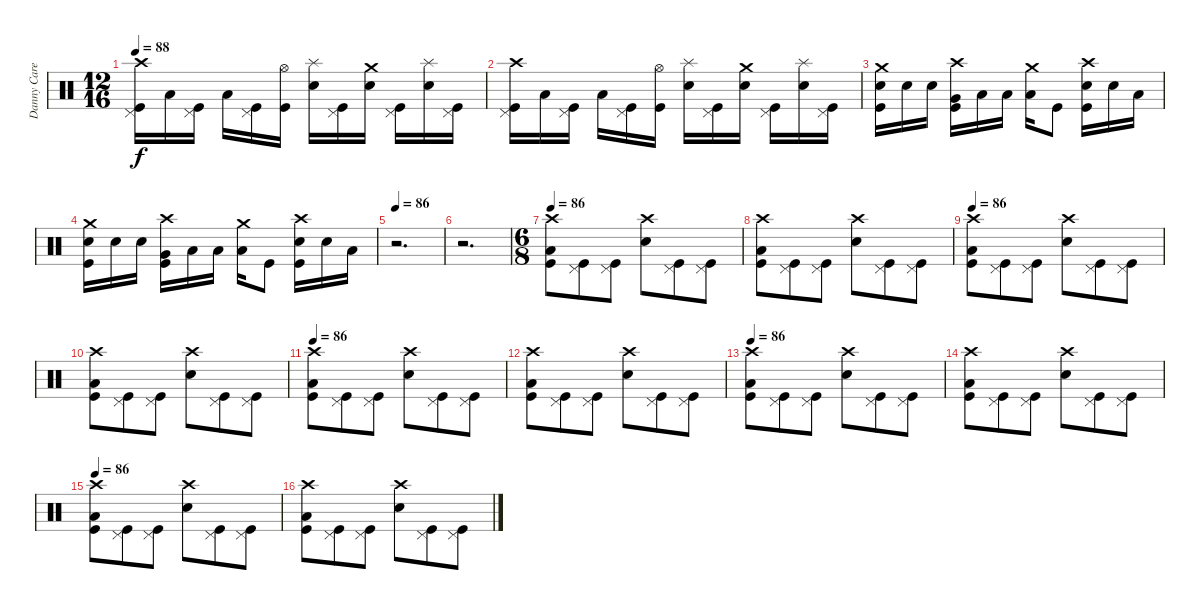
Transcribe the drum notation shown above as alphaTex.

\track ("Danny Carey" "Danny Care") {instrument percussion}
\staff {score}
\articulation defaults
\ts (12 16)
\tempo 88
\clef neutral
\ks c
("Crash high (hit)" "Pedal Hi-Hat (hit)" "Kick (hit)").16{dy f} "Low Floor Tom (hit)".16 ("Pedal Hi-Hat (hit)" "Kick (hit)").16 "Low Floor Tom (hit)".16 ("Pedal Hi-Hat (hit)" "Kick (hit)").16 ("Hi-Hat (open)" "Kick (hit)").16 ("Splash (hit)" "Electric Snare (hit)").16 ("Pedal Hi-Hat (hit)" "Kick (hit)").16 ("Crash medium (hit)" "Electric Snare (hit)").16 ("Pedal Hi-Hat (hit)" "Kick (hit)").16 ("Splash (hit)" "Electric Snare (hit)").16 ("Pedal Hi-Hat (hit)" "Kick (hit)").16 |
("Crash high (hit)" "Pedal Hi-Hat (hit)" "Kick (hit)").16 "Low Floor Tom (hit)".16 ("Pedal Hi-Hat (hit)" "Kick (hit)").16 "Low Floor Tom (hit)".16 ("Pedal Hi-Hat (hit)" "Kick (hit)").16 ("Hi-Hat (open)" "Kick (hit)").16 ("Splash (hit)" "Electric Snare (hit)").16 ("Pedal Hi-Hat (hit)" "Kick (hit)").16 ("Crash medium (hit)" "Electric Snare (hit)").16 ("Pedal Hi-Hat (hit)" "Kick (hit)").16 ("Splash (hit)" "Electric Snare (hit)").16 ("Pedal Hi-Hat (hit)" "Kick (hit)").16 |
("Crash medium (hit)" "Electric Snare (hit)" "Kick (hit)").16 "Electric Snare (hit)".16 "Electric Snare (hit)".16 ("Crash high (hit)" "Very Low Tom (hit)" "Kick (hit)").16 "Low Tom (hit)".16 "Low Tom (hit)".16 ("Crash medium (hit)" "Low Tom (hit)").16 "Kick (hit)".8 ("Crash high (hit)" "Electric Snare (hit)" "Kick (hit)").16 "Electric Snare (hit)".16 "Low Floor Tom (hit)".16 |
("Crash medium (hit)" "Electric Snare (hit)" "Kick (hit)").16 "Electric Snare (hit)".16 "Electric Snare (hit)".16 ("Crash high (hit)" "Very Low Tom (hit)" "Kick (hit)").16 "Low Tom (hit)".16 "Low Tom (hit)".16 ("Crash medium (hit)" "Low Tom (hit)").16 "Kick (hit)".8 ("Crash high (hit)" "Electric Snare (hit)" "Kick (hit)").16 "Electric Snare (hit)".16 "Low Floor Tom (hit)".16 |
\tempo 86
r.2{d} |
r.2{d} |
\ts (6 8)
\tempo 86
("Crash high (hit)" "Low Floor Tom (hit)" "Kick (hit)").8 ("Pedal Hi-Hat (hit)" "Kick (hit)").8 ("Pedal Hi-Hat (hit)" "Kick (hit)").8 ("Crash high (hit)" "Electric Snare (hit)").8 ("Pedal Hi-Hat (hit)" "Kick (hit)").8 ("Pedal Hi-Hat (hit)" "Kick (hit)").8 |
("Crash high (hit)" "Low Floor Tom (hit)" "Kick (hit)").8 ("Pedal Hi-Hat (hit)" "Kick (hit)").8 ("Pedal Hi-Hat (hit)" "Kick (hit)").8 ("Crash high (hit)" "Electric Snare (hit)").8 ("Pedal Hi-Hat (hit)" "Kick (hit)").8 ("Pedal Hi-Hat (hit)" "Kick (hit)").8 |
\tempo 86
("Crash high (hit)" "Low Floor Tom (hit)" "Kick (hit)").8 ("Pedal Hi-Hat (hit)" "Kick (hit)").8 ("Pedal Hi-Hat (hit)" "Kick (hit)").8 ("Crash high (hit)" "Electric Snare (hit)").8 ("Pedal Hi-Hat (hit)" "Kick (hit)").8 ("Pedal Hi-Hat (hit)" "Kick (hit)").8 |
("Crash high (hit)" "Low Floor Tom (hit)" "Kick (hit)").8 ("Pedal Hi-Hat (hit)" "Kick (hit)").8 ("Pedal Hi-Hat (hit)" "Kick (hit)").8 ("Crash high (hit)" "Electric Snare (hit)").8 ("Pedal Hi-Hat (hit)" "Kick (hit)").8 ("Pedal Hi-Hat (hit)" "Kick (hit)").8 |
\tempo 86
("Crash high (hit)" "Low Floor Tom (hit)" "Kick (hit)").8 ("Pedal Hi-Hat (hit)" "Kick (hit)").8 ("Pedal Hi-Hat (hit)" "Kick (hit)").8 ("Crash high (hit)" "Electric Snare (hit)").8 ("Pedal Hi-Hat (hit)" "Kick (hit)").8 ("Pedal Hi-Hat (hit)" "Kick (hit)").8 |
("Crash high (hit)" "Low Floor Tom (hit)" "Kick (hit)").8 ("Pedal Hi-Hat (hit)" "Kick (hit)").8 ("Pedal Hi-Hat (hit)" "Kick (hit)").8 ("Crash high (hit)" "Electric Snare (hit)").8 ("Pedal Hi-Hat (hit)" "Kick (hit)").8 ("Pedal Hi-Hat (hit)" "Kick (hit)").8 |
\tempo 86
("Crash high (hit)" "Low Floor Tom (hit)" "Kick (hit)").8 ("Pedal Hi-Hat (hit)" "Kick (hit)").8 ("Pedal Hi-Hat (hit)" "Kick (hit)").8 ("Crash high (hit)" "Electric Snare (hit)").8 ("Pedal Hi-Hat (hit)" "Kick (hit)").8 ("Pedal Hi-Hat (hit)" "Kick (hit)").8 |
("Crash high (hit)" "Low Floor Tom (hit)" "Kick (hit)").8 ("Pedal Hi-Hat (hit)" "Kick (hit)").8 ("Pedal Hi-Hat (hit)" "Kick (hit)").8 ("Crash high (hit)" "Electric Snare (hit)").8 ("Pedal Hi-Hat (hit)" "Kick (hit)").8 ("Pedal Hi-Hat (hit)" "Kick (hit)").8 |
\tempo 86
("Crash high (hit)" "Low Floor Tom (hit)" "Kick (hit)").8 ("Pedal Hi-Hat (hit)" "Kick (hit)").8 ("Pedal Hi-Hat (hit)" "Kick (hit)").8 ("Crash high (hit)" "Electric Snare (hit)").8 ("Pedal Hi-Hat (hit)" "Kick (hit)").8 ("Pedal Hi-Hat (hit)" "Kick (hit)").8 |
("Crash high (hit)" "Low Floor Tom (hit)" "Kick (hit)").8 ("Pedal Hi-Hat (hit)" "Kick (hit)").8 ("Pedal Hi-Hat (hit)" "Kick (hit)").8 ("Crash high (hit)" "Electric Snare (hit)").8 ("Pedal Hi-Hat (hit)" "Kick (hit)").8 ("Pedal Hi-Hat (hit)" "Kick (hit)").8
